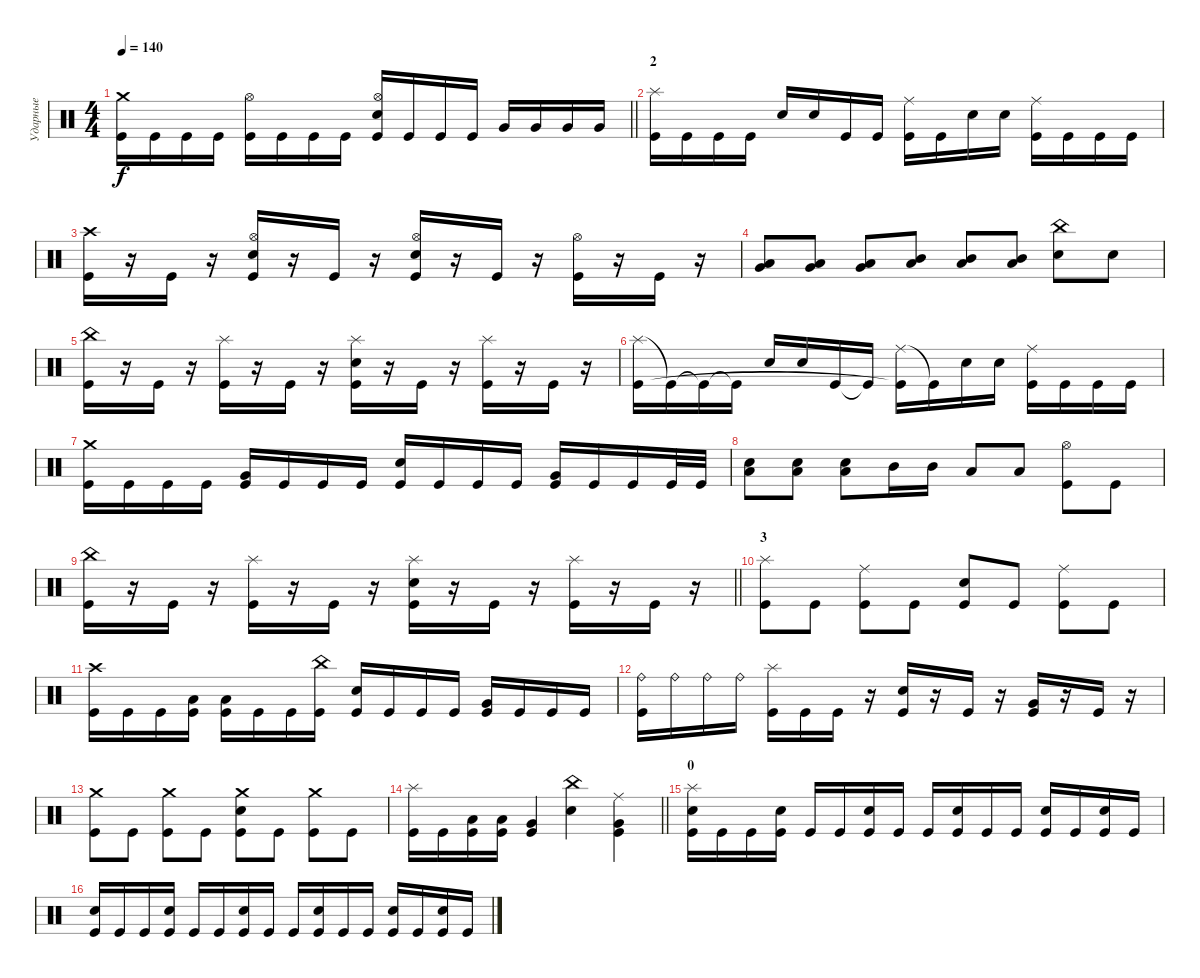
\track ("Ударные" "Ударные") {instrument percussion}
\staff {score}
\articulation defaults
\ts (4 4)
\tempo 140
\clef neutral
\barLineRight lightlight
\ks c
("Crash medium (hit)" "Kick (hit)").16{dy f} "Kick (hit)".16 "Kick (hit)".16 "Kick (hit)".16 ("Hi-Hat (open)" "Kick (hit)").16 "Kick (hit)".16 "Kick (hit)".16 "Kick (hit)".16 ("Hi-Hat (open)" "Electric Snare (hit)" "Kick (hit)").16 "Kick (hit)".16 "Kick (hit)".16 "Kick (hit)".16 "Very Low Tom (hit)".16 "Very Low Tom (hit)".16 "Very Low Tom (hit)".16 "Very Low Tom (hit)".16 |
\section ("" "2")
("Splash (hit)" "Kick (hit)").16 "Kick (hit)".16 "Kick (hit)".16 "Kick (hit)".16 "Electric Snare (hit)".16 "Electric Snare (hit)".16 "Kick (hit)".16 "Kick (hit)".16 ("Ride (middle)" "Kick (hit)").16 "Kick (hit)".16 "Electric Snare (hit)".16 "Electric Snare (hit)".16 ("Ride (middle)" "Kick (hit)").16 "Kick (hit)".16 "Kick (hit)".16 "Kick (hit)".16 |
("Crash high (hit)" "Kick (hit)").16 r.16 "Kick (hit)".16 r.16 ("Hi-Hat (open)" "Electric Snare (hit)" "Kick (hit)").16 r.16 "Kick (hit)".16 r.16 ("Hi-Hat (open)" "Electric Snare (hit)" "Kick (hit)").16 r.16 "Kick (hit)".16 r.16 ("Hi-Hat (open)" "Kick (hit)").16 r.16 "Kick (hit)".16 r.16 |
("Very Low Tom (hit)" "Low Tom (hit)").8 ("Very Low Tom (hit)" "Low Tom (hit)").8 ("Very Low Tom (hit)" "Low Tom (hit)").8 ("Mid Tom (hit)" "Low Tom (hit)").8 ("Mid Tom (hit)" "Low Tom (hit)").8 ("Mid Tom (hit)" "Low Tom (hit)").8 ("China (hit)" "Electric Snare (hit)").8 "Electric Snare (hit)".8 |
("China (hit)" "Kick (hit)").16 r.16 "Kick (hit)".16 r.16 ("Splash (hit)" "Kick (hit)").16 r.16 "Kick (hit)".16 r.16 ("Splash (hit)" "Electric Snare (hit)" "Kick (hit)").16 r.16 "Kick (hit)".16 r.16 ("Splash (hit)" "Kick (hit)").16 r.16 "Kick (hit)".16 r.16 |
("Splash (hit)" "Kick (hit)").16 "Kick (hit)"{t}.16 "Kick (hit)"{t}.16 "Kick (hit)"{t}.16 "Electric Snare (hit)".16 "Electric Snare (hit)".16 "Kick (hit)".16 "Kick (hit)"{t}.16 ("Ride (middle)" "Kick (hit)"{t}).16 "Kick (hit)"{t}.16 "Electric Snare (hit)".16 "Electric Snare (hit)".16 ("Ride (middle)" "Kick (hit)").16 "Kick (hit)".16 "Kick (hit)".16 "Kick (hit)".16 |
("Crash medium (hit)" "Kick (hit)").16 "Kick (hit)".16 "Kick (hit)".16 "Kick (hit)".16 ("Very Low Tom (hit)" "Kick (hit)").16 "Kick (hit)".16 "Kick (hit)".16 "Kick (hit)".16 ("Electric Snare (hit)" "Kick (hit)").16 "Kick (hit)".16 "Kick (hit)".16 "Kick (hit)".16 ("Very Low Tom (hit)" "Kick (hit)").16 "Kick (hit)".16 "Kick (hit)".16 "Kick (hit)".32 "Kick (hit)".32 |
("Low Floor Tom (hit)" "Electric Snare (hit)").8 ("Low Floor Tom (hit)" "Electric Snare (hit)").8 ("Low Floor Tom (hit)" "Electric Snare (hit)").8 "Mid Tom (hit)".16 "Mid Tom (hit)".16 "Low Tom (hit)".8 "Low Tom (hit)".8 ("Hi-Hat (open)" "Kick (hit)").8 "Kick (hit)".8 |
\barLineRight lightlight
("China (hit)" "Kick (hit)").16 r.16 "Kick (hit)".16 r.16 ("Splash (hit)" "Kick (hit)").16 r.16 "Kick (hit)".16 r.16 ("Splash (hit)" "Electric Snare (hit)" "Kick (hit)").16 r.16 "Kick (hit)".16 r.16 ("Splash (hit)" "Kick (hit)").16 r.16 "Kick (hit)".16 r.16 |
\section ("" "3")
("Splash (hit)" "Kick (hit)").8 "Kick (hit)".8 ("Ride (middle)" "Kick (hit)").8 "Kick (hit)".8 ("Electric Snare (hit)" "Kick (hit)").8 "Kick (hit)".8 ("Ride (middle)" "Kick (hit)").8 "Kick (hit)".8 |
("Crash high (hit)" "Kick (hit)").16 "Kick (hit)".16 "Kick (hit)".16 ("Low Tom (hit)" "Kick (hit)").16 ("Low Tom (hit)" "Kick (hit)").16 "Kick (hit)".16 "Kick (hit)".16 ("China (hit)" "Kick (hit)").16 ("Electric Snare (hit)" "Kick (hit)").16 "Kick (hit)".16 "Kick (hit)".16 "Kick (hit)".16 ("Very Low Tom (hit)" "Kick (hit)").16 "Kick (hit)".16 "Kick (hit)".16 "Kick (hit)".16 |
("Ride (bell)" "Kick (hit)").16 "Ride (bell)".16 "Ride (bell)".16 "Ride (bell)".16 ("Splash (hit)" "Kick (hit)").16 "Kick (hit)".16 "Kick (hit)".16 r.16 ("Electric Snare (hit)" "Kick (hit)").16 r.16 "Kick (hit)".16 r.16 ("Very Low Tom (hit)" "Kick (hit)").16 r.16 "Kick (hit)".16 r.16 |
("Crash medium (hit)" "Kick (hit)").8 "Kick (hit)".8 ("Crash medium (hit)" "Kick (hit)").8 "Kick (hit)".8 ("Crash medium (hit)" "Electric Snare (hit)" "Kick (hit)").8 "Kick (hit)".8 ("Crash medium (hit)" "Kick (hit)").8 "Kick (hit)".8 |
\barLineRight lightlight
("Splash (hit)" "Kick (hit)").16 "Kick (hit)".16 ("Low Tom (hit)" "Kick (hit)").16 ("Low Tom (hit)" "Kick (hit)").16 ("Very Low Tom (hit)" "Kick (hit)").4 ("China (hit)" "Electric Snare (hit)").4 ("Ride (middle)" "Very Low Tom (hit)" "Kick (hit)").4 |
\section ("" "0")
("Splash (hit)" "Electric Snare (hit)" "Kick (hit)").16 "Kick (hit)".16 "Kick (hit)".16 ("Electric Snare (hit)" "Kick (hit)").16 "Kick (hit)".16 "Kick (hit)".16 ("Electric Snare (hit)" "Kick (hit)").16 "Kick (hit)".16 "Kick (hit)".16 ("Electric Snare (hit)" "Kick (hit)").16 "Kick (hit)".16 "Kick (hit)".16 ("Electric Snare (hit)" "Kick (hit)").16 "Kick (hit)".16 ("Electric Snare (hit)" "Kick (hit)").16 "Kick (hit)".16 |
("Electric Snare (hit)" "Kick (hit)").16 "Kick (hit)".16 "Kick (hit)".16 ("Electric Snare (hit)" "Kick (hit)").16 "Kick (hit)".16 "Kick (hit)".16 ("Electric Snare (hit)" "Kick (hit)").16 "Kick (hit)".16 "Kick (hit)".16 ("Electric Snare (hit)" "Kick (hit)").16 "Kick (hit)".16 "Kick (hit)".16 ("Electric Snare (hit)" "Kick (hit)").16 "Kick (hit)".16 ("Electric Snare (hit)" "Kick (hit)").16 "Kick (hit)".16
